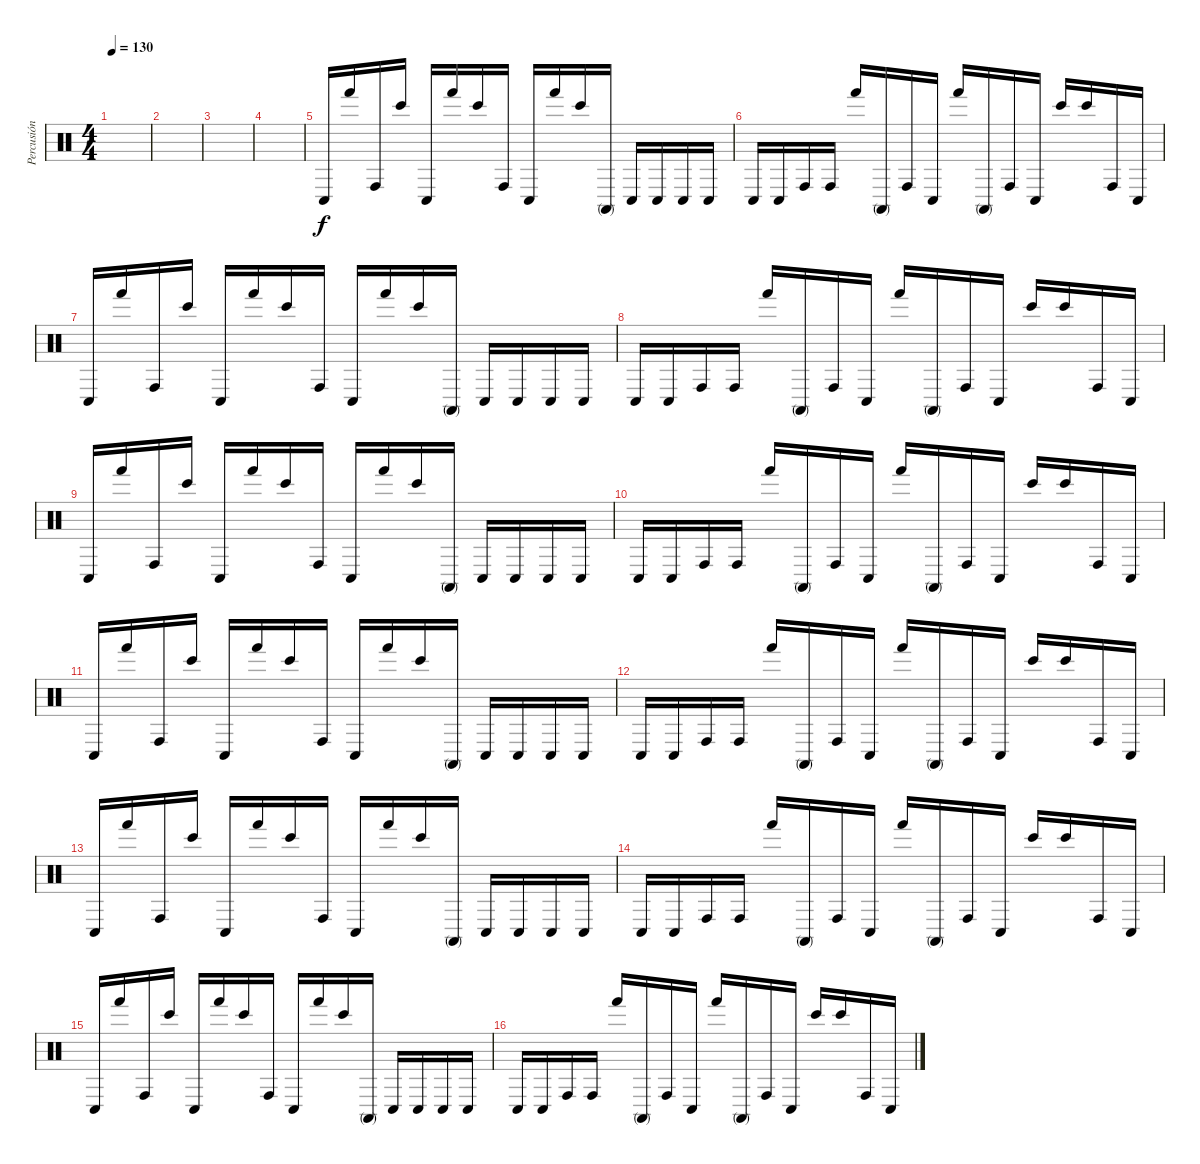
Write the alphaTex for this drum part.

\track ("Percusión" "Percusión") {instrument percussion}
\staff {score}
\articulation defaults
\ts (4 4)
\tempo 130
\clef neutral
\ks c
|
|
|
|
"Conga low (hit)".16 "Hand (hit)".16 "Conga high (hit)".16 "Bongo High (hit)".16 "Conga low (hit)".16 "Hand (hit)".16 "Bongo High (hit)".16 "Conga high (hit)".16 "Conga low (hit)".16 "Hand (hit)".16 "Bongo High (hit)".16 "Conga high (mute)".16 "Conga low (hit)".16 "Conga low (hit)".16 "Conga low (hit)".16 "Conga low (hit)".16 |
"Conga low (hit)".16 "Conga low (hit)".16 "Conga high (hit)".16 "Conga high (hit)".16 "Hand (hit)".16 "Conga high (mute)".16 "Conga high (hit)".16 "Conga low (hit)".16 "Hand (hit)".16 "Conga high (mute)".16 "Conga high (hit)".16 "Conga low (hit)".16 "Bongo High (hit)".16 "Bongo High (hit)".16 "Conga high (hit)".16 "Conga low (hit)".16 |
"Conga low (hit)".16 "Hand (hit)".16 "Conga high (hit)".16 "Bongo High (hit)".16 "Conga low (hit)".16 "Hand (hit)".16 "Bongo High (hit)".16 "Conga high (hit)".16 "Conga low (hit)".16 "Hand (hit)".16 "Bongo High (hit)".16 "Conga high (mute)".16 "Conga low (hit)".16 "Conga low (hit)".16 "Conga low (hit)".16 "Conga low (hit)".16 |
"Conga low (hit)".16 "Conga low (hit)".16 "Conga high (hit)".16 "Conga high (hit)".16 "Hand (hit)".16 "Conga high (mute)".16 "Conga high (hit)".16 "Conga low (hit)".16 "Hand (hit)".16 "Conga high (mute)".16 "Conga high (hit)".16 "Conga low (hit)".16 "Bongo High (hit)".16 "Bongo High (hit)".16 "Conga high (hit)".16 "Conga low (hit)".16 |
"Conga low (hit)".16 "Hand (hit)".16 "Conga high (hit)".16 "Bongo High (hit)".16 "Conga low (hit)".16 "Hand (hit)".16 "Bongo High (hit)".16 "Conga high (hit)".16 "Conga low (hit)".16 "Hand (hit)".16 "Bongo High (hit)".16 "Conga high (mute)".16 "Conga low (hit)".16 "Conga low (hit)".16 "Conga low (hit)".16 "Conga low (hit)".16 |
"Conga low (hit)".16 "Conga low (hit)".16 "Conga high (hit)".16 "Conga high (hit)".16 "Hand (hit)".16 "Conga high (mute)".16 "Conga high (hit)".16 "Conga low (hit)".16 "Hand (hit)".16 "Conga high (mute)".16 "Conga high (hit)".16 "Conga low (hit)".16 "Bongo High (hit)".16 "Bongo High (hit)".16 "Conga high (hit)".16 "Conga low (hit)".16 |
"Conga low (hit)".16 "Hand (hit)".16 "Conga high (hit)".16 "Bongo High (hit)".16 "Conga low (hit)".16 "Hand (hit)".16 "Bongo High (hit)".16 "Conga high (hit)".16 "Conga low (hit)".16 "Hand (hit)".16 "Bongo High (hit)".16 "Conga high (mute)".16 "Conga low (hit)".16 "Conga low (hit)".16 "Conga low (hit)".16 "Conga low (hit)".16 |
"Conga low (hit)".16 "Conga low (hit)".16 "Conga high (hit)".16 "Conga high (hit)".16 "Hand (hit)".16 "Conga high (mute)".16 "Conga high (hit)".16 "Conga low (hit)".16 "Hand (hit)".16 "Conga high (mute)".16 "Conga high (hit)".16 "Conga low (hit)".16 "Bongo High (hit)".16 "Bongo High (hit)".16 "Conga high (hit)".16 "Conga low (hit)".16 |
"Conga low (hit)".16 "Hand (hit)".16 "Conga high (hit)".16 "Bongo High (hit)".16 "Conga low (hit)".16 "Hand (hit)".16 "Bongo High (hit)".16 "Conga high (hit)".16 "Conga low (hit)".16 "Hand (hit)".16 "Bongo High (hit)".16 "Conga high (mute)".16 "Conga low (hit)".16 "Conga low (hit)".16 "Conga low (hit)".16 "Conga low (hit)".16 |
"Conga low (hit)".16 "Conga low (hit)".16 "Conga high (hit)".16 "Conga high (hit)".16 "Hand (hit)".16 "Conga high (mute)".16 "Conga high (hit)".16 "Conga low (hit)".16 "Hand (hit)".16 "Conga high (mute)".16 "Conga high (hit)".16 "Conga low (hit)".16 "Bongo High (hit)".16 "Bongo High (hit)".16 "Conga high (hit)".16 "Conga low (hit)".16 |
"Conga low (hit)".16 "Hand (hit)".16 "Conga high (hit)".16 "Bongo High (hit)".16 "Conga low (hit)".16 "Hand (hit)".16 "Bongo High (hit)".16 "Conga high (hit)".16 "Conga low (hit)".16 "Hand (hit)".16 "Bongo High (hit)".16 "Conga high (mute)".16 "Conga low (hit)".16 "Conga low (hit)".16 "Conga low (hit)".16 "Conga low (hit)".16 |
"Conga low (hit)".16 "Conga low (hit)".16 "Conga high (hit)".16 "Conga high (hit)".16 "Hand (hit)".16 "Conga high (mute)".16 "Conga high (hit)".16 "Conga low (hit)".16 "Hand (hit)".16 "Conga high (mute)".16 "Conga high (hit)".16 "Conga low (hit)".16 "Bongo High (hit)".16 "Bongo High (hit)".16 "Conga high (hit)".16 "Conga low (hit)".16
